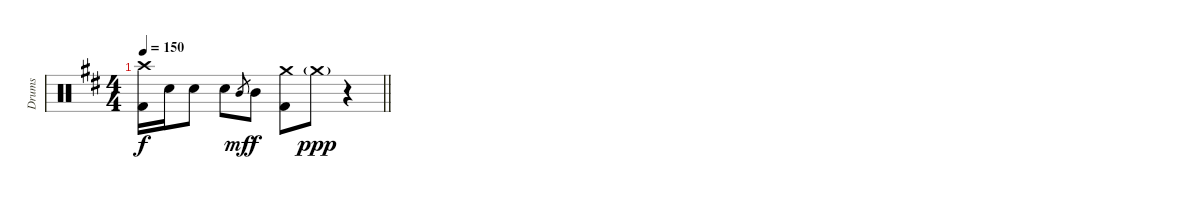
\track ("Drums" "Drums") {instrument percussion}
\staff {score}
\articulation defaults
\ts (4 4)
\tempo 150
\clef neutral
\barLineRight lightlight
\ks bminor
("Crash high (hit)" "Kick (hit) 2").16{dy f} "Electric Snare (hit)".16 "Electric Snare (hit)".8 "Electric Snare (hit)".8 "Mid Tom (hit)".8{gr dy mf} "Mid Tom (hit)".8{dy f} ("Crash medium (hit)" "Kick (hit) 2").8 "Crash medium (hit)"{g}.8{dy ppp} r.4
